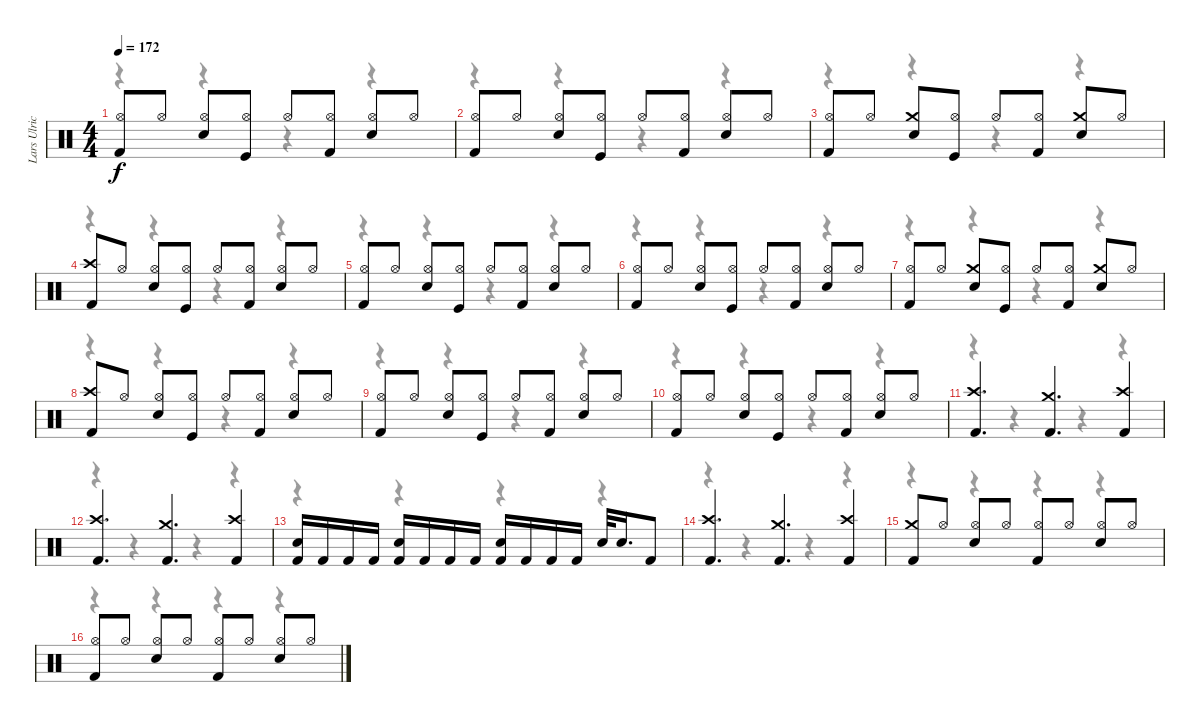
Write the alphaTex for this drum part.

\track ("Lars Ulrich" "Lars Ulric") {instrument percussion}
\staff {score}
\articulation defaults
\voice
\ts (4 4)
\tempo 172
\clef neutral
\ks c
("Hi-Hat (open)" "Kick (hit) 2").8{dy f} "Hi-Hat (open)".8 ("Hi-Hat (open)" "Snare (hit) 2").8 ("Hi-Hat (open)" "Kick (hit)").8 "Hi-Hat (open)".8 ("Hi-Hat (open)" "Kick (hit) 2").8 ("Hi-Hat (open)" "Snare (hit) 2").8 "Hi-Hat (open)".8 |
("Hi-Hat (open)" "Kick (hit) 2").8 "Hi-Hat (open)".8 ("Hi-Hat (open)" "Snare (hit) 2").8 ("Hi-Hat (open)" "Kick (hit)").8 "Hi-Hat (open)".8 ("Hi-Hat (open)" "Kick (hit) 2").8 ("Hi-Hat (open)" "Snare (hit) 2").8 "Hi-Hat (open)".8 |
("Hi-Hat (open)" "Kick (hit) 2").8 "Hi-Hat (open)".8 ("Snare (hit) 2" "Crash medium (hit)").8 ("Hi-Hat (open)" "Kick (hit)").8 "Hi-Hat (open)".8 ("Hi-Hat (open)" "Kick (hit) 2").8 ("Snare (hit) 2" "Crash medium (hit)").8 "Hi-Hat (open)".8 |
("Kick (hit) 2" "Crash high (hit)").8 "Hi-Hat (open)".8 ("Hi-Hat (open)" "Snare (hit) 2").8 ("Hi-Hat (open)" "Kick (hit)").8 "Hi-Hat (open)".8 ("Hi-Hat (open)" "Kick (hit) 2").8 ("Hi-Hat (open)" "Snare (hit) 2").8 "Hi-Hat (open)".8 |
("Hi-Hat (open)" "Kick (hit) 2").8 "Hi-Hat (open)".8 ("Hi-Hat (open)" "Snare (hit) 2").8 ("Hi-Hat (open)" "Kick (hit)").8 "Hi-Hat (open)".8 ("Hi-Hat (open)" "Kick (hit) 2").8 ("Hi-Hat (open)" "Snare (hit) 2").8 "Hi-Hat (open)".8 |
("Hi-Hat (open)" "Kick (hit) 2").8 "Hi-Hat (open)".8 ("Hi-Hat (open)" "Snare (hit) 2").8 ("Hi-Hat (open)" "Kick (hit)").8 "Hi-Hat (open)".8 ("Hi-Hat (open)" "Kick (hit) 2").8 ("Hi-Hat (open)" "Snare (hit) 2").8 "Hi-Hat (open)".8 |
("Hi-Hat (open)" "Kick (hit) 2").8 "Hi-Hat (open)".8 ("Snare (hit) 2" "Crash medium (hit)").8 ("Hi-Hat (open)" "Kick (hit)").8 "Hi-Hat (open)".8 ("Hi-Hat (open)" "Kick (hit) 2").8 ("Snare (hit) 2" "Crash medium (hit)").8 "Hi-Hat (open)".8 |
("Kick (hit) 2" "Crash high (hit)").8 "Hi-Hat (open)".8 ("Hi-Hat (open)" "Snare (hit) 2").8 ("Hi-Hat (open)" "Kick (hit)").8 "Hi-Hat (open)".8 ("Hi-Hat (open)" "Kick (hit) 2").8 ("Hi-Hat (open)" "Snare (hit) 2").8 "Hi-Hat (open)".8 |
("Hi-Hat (open)" "Kick (hit) 2").8 "Hi-Hat (open)".8 ("Hi-Hat (open)" "Snare (hit) 2").8 ("Hi-Hat (open)" "Kick (hit)").8 "Hi-Hat (open)".8 ("Hi-Hat (open)" "Kick (hit) 2").8 ("Hi-Hat (open)" "Snare (hit) 2").8 "Hi-Hat (open)".8 |
("Hi-Hat (open)" "Kick (hit) 2").8 "Hi-Hat (open)".8 ("Hi-Hat (open)" "Snare (hit) 2").8 ("Hi-Hat (open)" "Kick (hit)").8 "Hi-Hat (open)".8 ("Hi-Hat (open)" "Kick (hit) 2").8 ("Hi-Hat (open)" "Snare (hit) 2").8 "Hi-Hat (open)".8 |
("Crash high (hit)" "Kick (hit) 2").4{d} ("Crash medium (hit)" "Kick (hit) 2").4{d} ("Crash high (hit)" "Kick (hit) 2").4 |
("Crash high (hit)" "Kick (hit) 2").4{d} ("Crash medium (hit)" "Kick (hit) 2").4{d} ("Crash high (hit)" "Kick (hit) 2").4 |
("Kick (hit) 2" "Snare (hit) 2").16 "Kick (hit) 2".16 "Kick (hit) 2".16 "Kick (hit) 2".16 ("Kick (hit) 2" "Snare (hit) 2").16 "Kick (hit) 2".16 "Kick (hit) 2".16 "Kick (hit) 2".16 ("Kick (hit) 2" "Snare (hit) 2").16 "Kick (hit) 2".16 "Kick (hit) 2".16 "Kick (hit) 2".16 "Snare (hit) 2".32 "Snare (hit) 2".16{d} "Kick (hit) 2".8 |
("Crash high (hit)" "Kick (hit) 2").4{d} ("Crash medium (hit)" "Kick (hit) 2").4{d} ("Crash high (hit)" "Kick (hit) 2").4 |
("Crash medium (hit)" "Kick (hit) 2").8 "Hi-Hat (open)".8 ("Hi-Hat (open)" "Snare (hit) 2").8 "Hi-Hat (open)".8 ("Hi-Hat (open)" "Kick (hit) 2").8 "Hi-Hat (open)".8 ("Hi-Hat (open)" "Snare (hit) 2").8 "Hi-Hat (open)".8 |
("Kick (hit) 2" "Hi-Hat (open)").8 "Hi-Hat (open)".8 ("Hi-Hat (open)" "Snare (hit) 2").8 "Hi-Hat (open)".8 ("Hi-Hat (open)" "Kick (hit) 2").8 "Hi-Hat (open)".8 ("Hi-Hat (open)" "Snare (hit) 2").8 "Hi-Hat (open)".8
\voice
\clef neutral
\ottava regular
\simile none
\ks c
r.4{dy f} r.4 r.4 r.4 |
r.4 r.4 r.4 r.4 |
r.4 r.4 r.4 r.4 |
r.4 r.4 r.4 r.4 |
r.4 r.4 r.4 r.4 |
r.4 r.4 r.4 r.4 |
r.4 r.4 r.4 r.4 |
r.4 r.4 r.4 r.4 |
r.4 r.4 r.4 r.4 |
r.4 r.4 r.4 r.4 |
r.4 r.4 r.4 r.4 |
r.4 r.4 r.4 r.4 |
r.4 r.4 r.4 r.4 |
r.4 r.4 r.4 r.4 |
r.4 r.4 r.4 r.4 |
r.4 r.4 r.4 r.4
